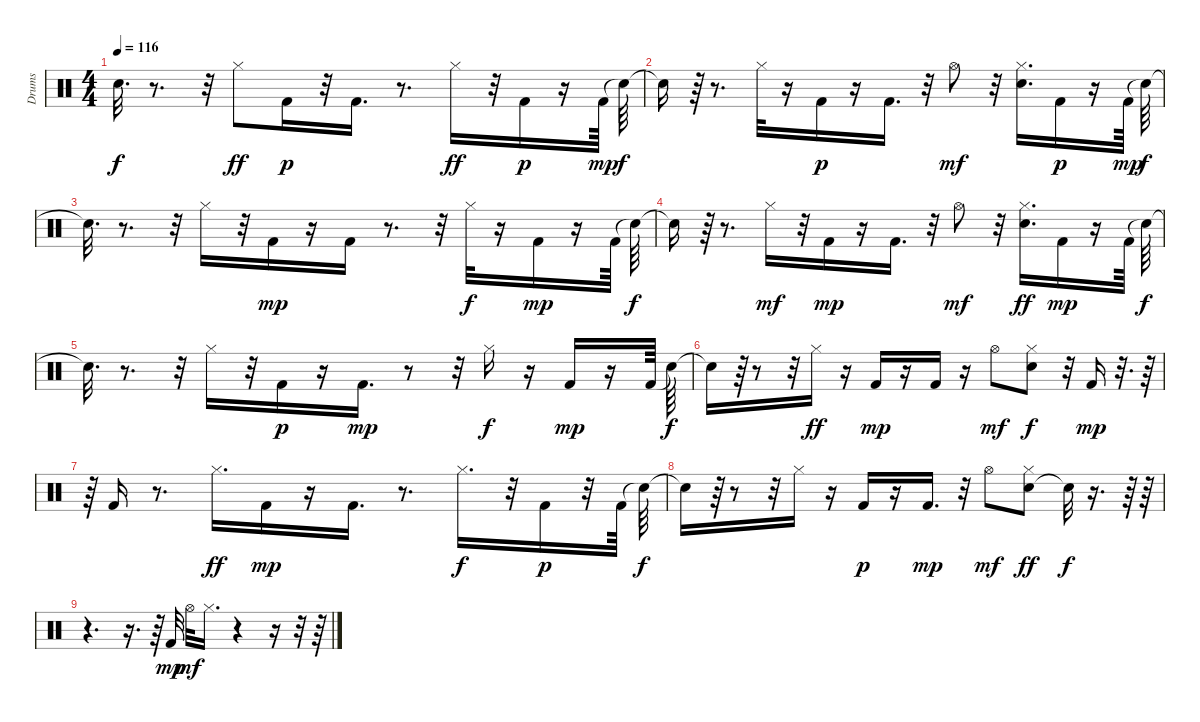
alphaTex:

\track ("Drums" "Drums") {instrument percussion}
\staff {score}
\articulation defaults
\ts (4 4)
\tempo 116
\clef neutral
\ks c "Snare (hit)"{t}.32{d dy f}
r.8{d} r.32 "Hi-Hat (closed)".8{dy ff} "Kick (hit) 2".16{dy p} r.32 "Kick (hit) 2".16{d} r.8{d} "Hi-Hat (closed)".16{dy ff} r.32 "Kick (hit) 2".16{dy p} r.16 "Kick (hit) 2".64{dy mp} "Snare (hit)"{t}.64{dy f} |
"Snare (hit)"{t}.16 r.64 r.8{d} "Hi-Hat (closed)".32 r.16 "Kick (hit) 2".16{dy p} r.16 "Kick (hit) 2".16{d} r.32 "Hi-Hat (open)".8{dy mf} r.32 ("Electric Snare (hit)" "Hi-Hat (closed)").16{d} "Kick (hit) 2".16{dy p} r.16 "Kick (hit) 2".64{dy mp} "Snare (hit)"{t}.64{dy f} |
"Snare (hit)"{t}.32{d} r.8{d} r.32 "Hi-Hat (closed)".16 r.32 "Kick (hit) 2".16{dy mp} r.16 "Kick (hit) 2".16 r.8{d} r.32 "Hi-Hat (closed)".32{dy f} r.16 "Kick (hit) 2".16{dy mp} r.16 "Kick (hit) 2".64 "Snare (hit)"{t}.64{dy f} |
"Snare (hit)"{t}.16 r.64 r.8{d} "Hi-Hat (closed)".16{dy mf} r.32 "Kick (hit) 2".16{dy mp} r.16 "Kick (hit) 2".16{d} r.32 "Hi-Hat (open)".8{dy mf} r.32 ("Hi-Hat (closed)" "Electric Snare (hit)").16{d dy ff} "Kick (hit) 2".16{dy mp} r.16 "Kick (hit) 2".64 "Snare (hit)"{t}.64{dy f} |
"Snare (hit)"{t}.32{d} r.8{d} r.32 "Hi-Hat (closed)".16 r.32 "Kick (hit) 2".16{dy p} r.16 "Kick (hit) 2".16{d dy mp} r.8 r.32 "Hi-Hat (closed)".16{dy f} r.16 "Kick (hit) 2".16{dy mp} r.16 "Kick (hit) 2".64 "Snare (hit)"{t}.64{dy f} |
"Snare (hit)"{t}.16 r.64 r.8 r.32 "Hi-Hat (closed)".16{dy ff} r.16 "Kick (hit) 2".16{dy mp} r.16 "Kick (hit) 2".16 r.16 "Hi-Hat (open)".8{dy mf} ("Electric Snare (hit)" "Hi-Hat (closed)").8{dy f} r.32 "Kick (hit) 2".16{dy mp} r.32{d} r.64 |
r.64 "Kick (hit) 2".16 r.8{d} "Hi-Hat (closed)".16{d dy ff} "Kick (hit) 2".16{dy mp} r.16 "Kick (hit) 2".16{d} r.8{d} "Hi-Hat (closed)".16{d dy f} r.32 "Kick (hit) 2".16{dy p} r.32 "Kick (hit) 2".64 "Snare (hit)"{t}.64{dy f} |
"Snare (hit)"{t}.16 r.64 r.8 r.32 "Hi-Hat (closed)".16 r.16 "Kick (hit) 2".16{dy p} r.16 "Kick (hit) 2".16{d dy mp} r.32 "Hi-Hat (open)".8{dy mf} ("Electric Snare (hit)" "Hi-Hat (closed)").8{dy ff} "Snare (hit)"{t}.32{dy f} r.16{d} r.64 r.64 |
r.4{d} r.16{d} r.64 "Kick (hit) 2".32{dy mp} "Hi-Hat (open)".32{dy mf} "Hi-Hat (closed)".16{d} r.4 r.16 r.32 r.64
